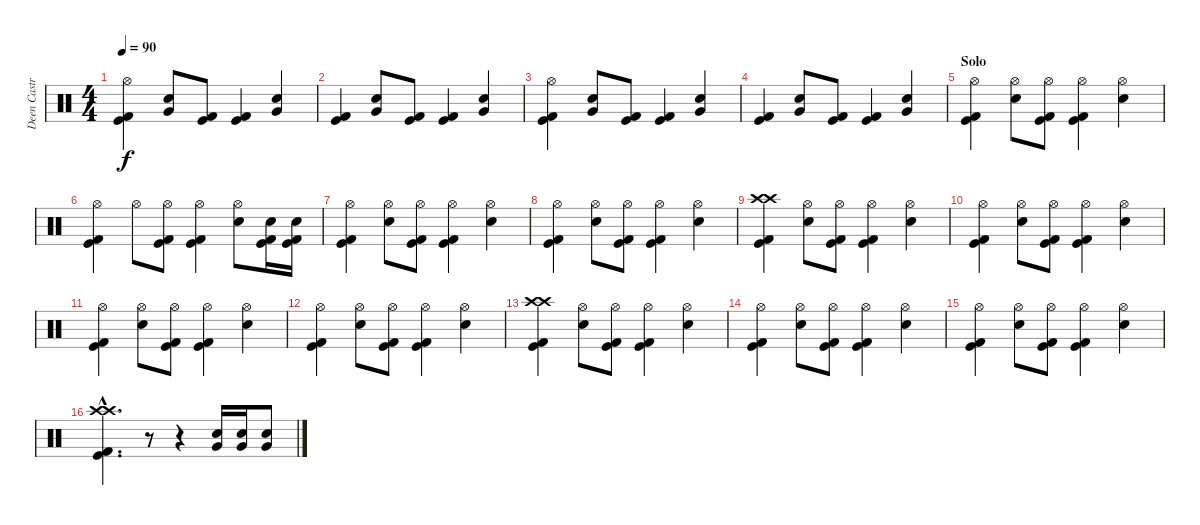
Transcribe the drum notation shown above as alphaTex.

\track ("Deen Castronovo" "Deen Castr") {instrument percussion}
\staff {score}
\articulation defaults
\ts (4 4)
\tempo 90
\clef neutral
\ks c
("Hi-Hat (open)" "Kick (hit) 2" "Kick (hit)").4{dy f} ("Snare (hit) 2" "Very Low Tom (hit)").8 ("Kick (hit) 2" "Kick (hit)").8 ("Kick (hit) 2" "Kick (hit)").4 ("Snare (hit) 2" "Very Low Tom (hit)").4 |
("Kick (hit) 2" "Kick (hit)").4 ("Snare (hit) 2" "Very Low Tom (hit)").8 ("Kick (hit) 2" "Kick (hit)").8 ("Kick (hit) 2" "Kick (hit)").4 ("Snare (hit) 2" "Very Low Tom (hit)").4 |
("Hi-Hat (open)" "Kick (hit) 2" "Kick (hit)").4 ("Snare (hit) 2" "Very Low Tom (hit)").8 ("Kick (hit) 2" "Kick (hit)").8 ("Kick (hit) 2" "Kick (hit)").4 ("Snare (hit) 2" "Very Low Tom (hit)").4 |
("Kick (hit) 2" "Kick (hit)").4 ("Snare (hit) 2" "Very Low Tom (hit)").8 ("Kick (hit) 2" "Kick (hit)").8 ("Kick (hit) 2" "Kick (hit)").4 ("Snare (hit) 2" "Very Low Tom (hit)").4 |
\section ("" "Solo")
("Hi-Hat (open)" "Kick (hit) 2" "Kick (hit)").4 ("Snare (hit) 2" "Hi-Hat (open)").8 ("Hi-Hat (open)" "Kick (hit) 2" "Kick (hit)").8 ("Hi-Hat (open)" "Kick (hit) 2" "Kick (hit)").4 ("Snare (hit) 2" "Hi-Hat (open)").4 |
("Hi-Hat (open)" "Kick (hit) 2" "Kick (hit)").4 "Hi-Hat (open)".8 ("Hi-Hat (open)" "Kick (hit) 2" "Kick (hit)").8 ("Hi-Hat (open)" "Kick (hit) 2" "Kick (hit)").4 ("Snare (hit) 2" "Hi-Hat (open)").8 ("Snare (hit) 2" "Kick (hit) 2" "Kick (hit)").16 ("Snare (hit) 2" "Kick (hit) 2" "Kick (hit)").16 |
("Hi-Hat (open)" "Kick (hit) 2" "Kick (hit)").4 ("Snare (hit) 2" "Hi-Hat (open)").8 ("Hi-Hat (open)" "Kick (hit) 2" "Kick (hit)").8 ("Hi-Hat (open)" "Kick (hit) 2" "Kick (hit)").4 ("Snare (hit) 2" "Hi-Hat (open)").4 |
("Hi-Hat (open)" "Kick (hit) 2" "Kick (hit)").4 ("Snare (hit) 2" "Hi-Hat (open)").8 ("Hi-Hat (open)" "Kick (hit) 2" "Kick (hit)").8 ("Hi-Hat (open)" "Kick (hit) 2" "Kick (hit)").4 ("Snare (hit) 2" "Hi-Hat (open)").4 |
("Crash high (hit)" "Crash high (hit)" "Kick (hit) 2" "Kick (hit)").4 ("Snare (hit) 2" "Hi-Hat (open)").8 ("Hi-Hat (open)" "Kick (hit) 2" "Kick (hit)").8 ("Hi-Hat (open)" "Kick (hit) 2" "Kick (hit)").4 ("Snare (hit) 2" "Hi-Hat (open)").4 |
("Hi-Hat (open)" "Kick (hit) 2" "Kick (hit)").4 ("Snare (hit) 2" "Hi-Hat (open)").8 ("Hi-Hat (open)" "Kick (hit) 2" "Kick (hit)").8 ("Hi-Hat (open)" "Kick (hit) 2" "Kick (hit)").4 ("Snare (hit) 2" "Hi-Hat (open)").4 |
("Hi-Hat (open)" "Kick (hit) 2" "Kick (hit)").4 ("Snare (hit) 2" "Hi-Hat (open)").8 ("Hi-Hat (open)" "Kick (hit) 2" "Kick (hit)").8 ("Hi-Hat (open)" "Kick (hit) 2" "Kick (hit)").4 ("Snare (hit) 2" "Hi-Hat (open)").4 |
("Hi-Hat (open)" "Kick (hit) 2" "Kick (hit)").4 ("Snare (hit) 2" "Hi-Hat (open)").8 ("Hi-Hat (open)" "Kick (hit) 2" "Kick (hit)").8 ("Hi-Hat (open)" "Kick (hit) 2" "Kick (hit)").4 ("Snare (hit) 2" "Hi-Hat (open)").4 |
("Crash high (hit)" "Crash high (hit)" "Kick (hit) 2" "Kick (hit)").4 ("Snare (hit) 2" "Hi-Hat (open)").8 ("Hi-Hat (open)" "Kick (hit) 2" "Kick (hit)").8 ("Hi-Hat (open)" "Kick (hit) 2" "Kick (hit)").4 ("Snare (hit) 2" "Hi-Hat (open)").4 |
("Hi-Hat (open)" "Kick (hit) 2" "Kick (hit)").4 ("Snare (hit) 2" "Hi-Hat (open)").8 ("Hi-Hat (open)" "Kick (hit) 2" "Kick (hit)").8 ("Hi-Hat (open)" "Kick (hit) 2" "Kick (hit)").4 ("Snare (hit) 2" "Hi-Hat (open)").4 |
("Hi-Hat (open)" "Kick (hit) 2" "Kick (hit)").4 ("Snare (hit) 2" "Hi-Hat (open)").8 ("Hi-Hat (open)" "Kick (hit) 2" "Kick (hit)").8 ("Hi-Hat (open)" "Kick (hit) 2" "Kick (hit)").4 ("Snare (hit) 2" "Hi-Hat (open)").4 |
("Crash high (hit)"{hac} "Crash high (hit)"{hac} "Kick (hit) 2"{hac} "Kick (hit)"{hac}).4{d} r.8 r.4 ("Snare (hit) 2" "Very Low Tom (hit)").16 ("Snare (hit) 2" "Very Low Tom (hit)").16 ("Snare (hit) 2" "Very Low Tom (hit)").8
